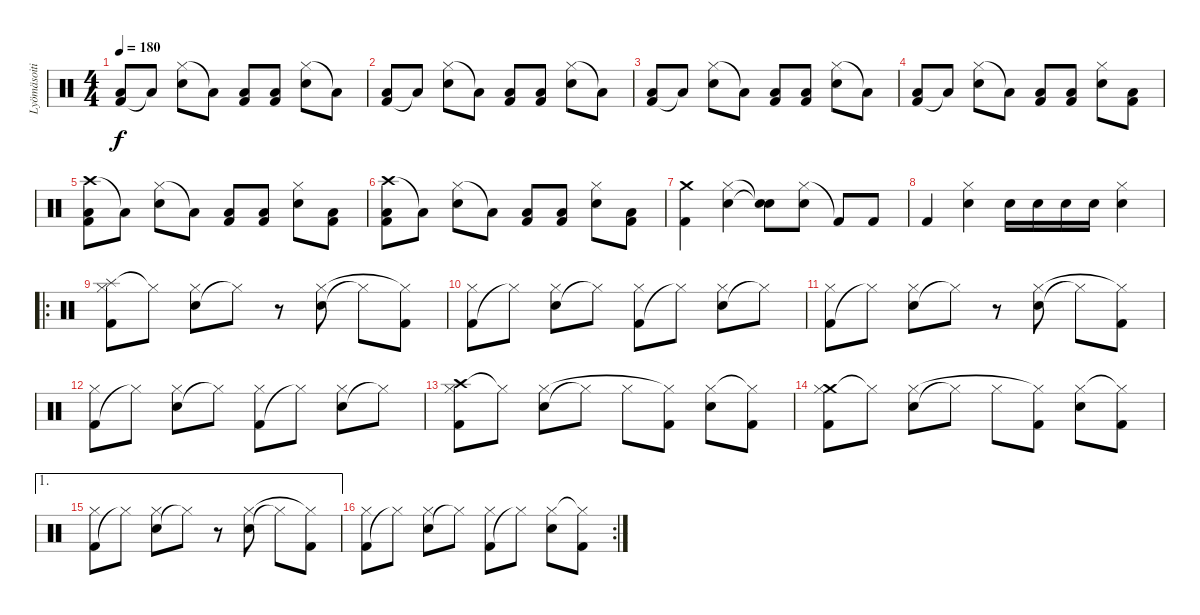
\track ("Lyömäsoitin" "Lyömäsoiti") {instrument percussion}
\staff {score}
\articulation defaults
\ts (4 4)
\tempo 180
\clef neutral
\ks c
("Kick (hit) 2" "Low Tom (hit)").8{dy f} "Low Tom (hit)"{t}.8 ("Hi-Hat (closed)" "Electric Snare (hit)").8 "Low Tom (hit)"{t}.8 ("Kick (hit) 2" "Low Tom (hit)").8 ("Kick (hit) 2" "Low Tom (hit)").8 ("Hi-Hat (closed)" "Electric Snare (hit)").8 "Low Tom (hit)"{t}.8 |
("Kick (hit) 2" "Low Tom (hit)").8 "Low Tom (hit)"{t}.8 ("Hi-Hat (closed)" "Electric Snare (hit)").8 "Low Tom (hit)"{t}.8 ("Kick (hit) 2" "Low Tom (hit)").8 ("Kick (hit) 2" "Low Tom (hit)").8 ("Hi-Hat (closed)" "Electric Snare (hit)").8 "Low Tom (hit)"{t}.8 |
("Kick (hit) 2" "Low Tom (hit)").8 "Low Tom (hit)"{t}.8 ("Hi-Hat (closed)" "Electric Snare (hit)").8 "Low Tom (hit)"{t}.8 ("Kick (hit) 2" "Low Tom (hit)").8 ("Kick (hit) 2" "Low Tom (hit)").8 ("Hi-Hat (closed)" "Electric Snare (hit)").8 "Low Tom (hit)"{t}.8 |
("Kick (hit) 2" "Low Tom (hit)").8 "Low Tom (hit)"{t}.8 ("Hi-Hat (closed)" "Electric Snare (hit)").8 "Low Tom (hit)"{t}.8 ("Kick (hit) 2" "Low Tom (hit)").8 ("Kick (hit) 2" "Low Tom (hit)").8 ("Hi-Hat (closed)" "Electric Snare (hit)").8 ("Kick (hit) 2" "Low Tom (hit)").8 |
("Crash high (hit)" "Kick (hit) 2" "Low Tom (hit)").8 "Low Tom (hit)"{t}.8 ("Hi-Hat (closed)" "Electric Snare (hit)").8 "Low Tom (hit)"{t}.8 ("Kick (hit) 2" "Low Tom (hit)").8 ("Kick (hit) 2" "Low Tom (hit)").8 ("Hi-Hat (closed)" "Electric Snare (hit)").8 ("Kick (hit) 2" "Low Tom (hit)").8 |
("Crash high (hit)" "Kick (hit) 2" "Low Tom (hit)").8 "Low Tom (hit)"{t}.8 ("Hi-Hat (closed)" "Electric Snare (hit)").8 "Low Tom (hit)"{t}.8 ("Kick (hit) 2" "Low Tom (hit)").8 ("Kick (hit) 2" "Low Tom (hit)").8 ("Hi-Hat (closed)" "Electric Snare (hit)").8 ("Kick (hit) 2" "Low Tom (hit)").8 |
("Kick (hit) 2" "Crash medium (hit)").4 ("Hi-Hat (closed)" "Electric Snare (hit)").4 ("Snare (hit)"{t} "Snare (hit)"{t}).8 ("Hi-Hat (closed)" "Electric Snare (hit)").8 "Kick (hit) 2"{t}.8 "Kick (hit) 2".8 |
"Kick (hit) 2".4 ("Hi-Hat (closed)" "Electric Snare (hit)").4 "Electric Snare (hit)".16 "Electric Snare (hit)".16 "Electric Snare (hit)".16 "Electric Snare (hit)".16 ("Hi-Hat (closed)" "Electric Snare (hit)").4 |
\ro
("Splash (hit)" "Kick (hit) 2" "Hi-Hat (closed)").8 "Hi-Hat (closed)"{t}.8 ("Electric Snare (hit)" "Hi-Hat (closed)").8 "Hi-Hat (closed)"{t}.8 r.8 ("Electric Snare (hit)" "Hi-Hat (closed)").8 "Hi-Hat (closed)"{t}.8 ("Kick (hit) 2" "Hi-Hat (closed)"{t}).8 |
("Kick (hit) 2" "Hi-Hat (closed)").8 "Hi-Hat (closed)"{t}.8 ("Electric Snare (hit)" "Hi-Hat (closed)").8 "Hi-Hat (closed)"{t}.8 ("Kick (hit) 2" "Hi-Hat (closed)").8 "Hi-Hat (closed)"{t}.8 ("Electric Snare (hit)" "Hi-Hat (closed)").8 "Hi-Hat (closed)"{t}.8 |
("Kick (hit) 2" "Hi-Hat (closed)").8 "Hi-Hat (closed)"{t}.8 ("Electric Snare (hit)" "Hi-Hat (closed)").8 "Hi-Hat (closed)"{t}.8 r.8 ("Electric Snare (hit)" "Hi-Hat (closed)").8 "Hi-Hat (closed)"{t}.8 ("Kick (hit) 2" "Hi-Hat (closed)"{t}).8 |
("Kick (hit) 2" "Hi-Hat (closed)").8 "Hi-Hat (closed)"{t}.8 ("Electric Snare (hit)" "Hi-Hat (closed)").8 "Hi-Hat (closed)"{t}.8 ("Kick (hit) 2" "Hi-Hat (closed)").8 "Hi-Hat (closed)"{t}.8 ("Electric Snare (hit)" "Hi-Hat (closed)").8 "Hi-Hat (closed)"{t}.8 |
("Crash high (hit)" "Kick (hit) 2" "Hi-Hat (closed)").8 "Hi-Hat (closed)"{t}.8 ("Electric Snare (hit)" "Hi-Hat (closed)").8 "Hi-Hat (closed)"{t}.8 "Hi-Hat (closed)".8 ("Kick (hit) 2" "Hi-Hat (closed)"{t}).8 ("Electric Snare (hit)" "Hi-Hat (closed)").8 ("Kick (hit) 2" "Hi-Hat (closed)"{t}).8 |
("Crash medium (hit)" "Kick (hit) 2" "Hi-Hat (closed)").8 "Hi-Hat (closed)"{t}.8 ("Electric Snare (hit)" "Hi-Hat (closed)").8 "Hi-Hat (closed)"{t}.8 "Hi-Hat (closed)".8 ("Kick (hit) 2" "Hi-Hat (closed)"{t}).8 ("Electric Snare (hit)" "Hi-Hat (closed)").8 ("Kick (hit) 2" "Hi-Hat (closed)"{t}).8 |
\ae 1
("Kick (hit) 2" "Hi-Hat (closed)").8 "Hi-Hat (closed)"{t}.8 ("Electric Snare (hit)" "Hi-Hat (closed)").8 "Hi-Hat (closed)"{t}.8 r.8 ("Electric Snare (hit)" "Hi-Hat (closed)").8 "Hi-Hat (closed)"{t}.8 ("Kick (hit) 2" "Hi-Hat (closed)"{t}).8 |
\rc 2
("Kick (hit) 2" "Hi-Hat (closed)").8 "Hi-Hat (closed)"{t}.8 ("Electric Snare (hit)" "Hi-Hat (closed)").8 "Hi-Hat (closed)"{t}.8 ("Kick (hit) 2" "Hi-Hat (closed)").8 "Hi-Hat (closed)"{t}.8 ("Electric Snare (hit)" "Hi-Hat (closed)").8 ("Kick (hit) 2" "Hi-Hat (closed)"{t}).8
